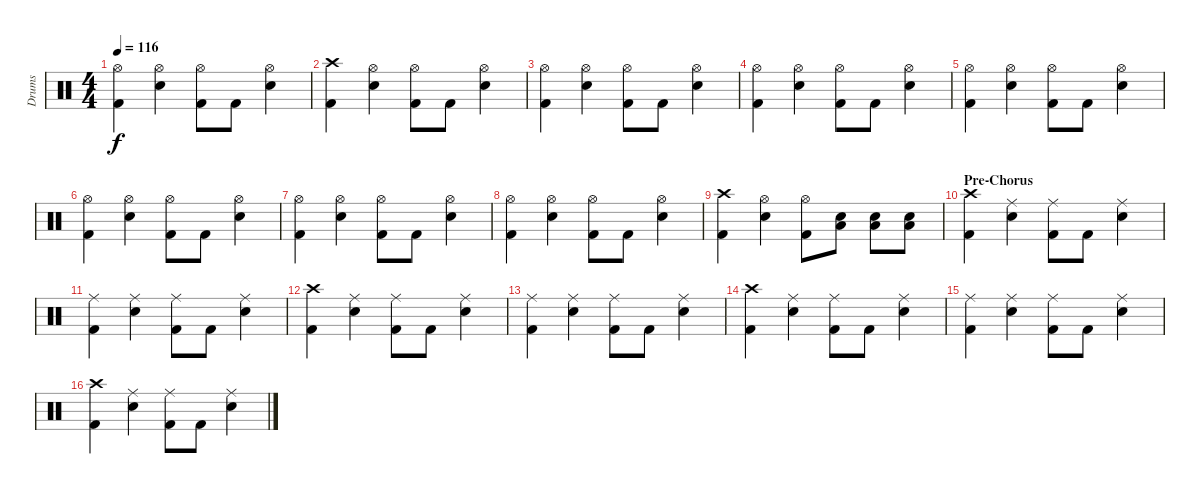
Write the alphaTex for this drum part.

\track ("Drums" "Drums") {instrument percussion}
\staff {score}
\articulation defaults
\ts (4 4)
\tempo 116
\clef neutral
\ks c
("Hi-Hat (open)" "Kick (hit) 2").4{dy f} ("Hi-Hat (open)" "Electric Snare (hit)").4 ("Hi-Hat (open)" "Kick (hit) 2").8 "Kick (hit) 2".8 ("Hi-Hat (open)" "Electric Snare (hit)").4 |
("Crash high (hit)" "Kick (hit) 2").4 ("Hi-Hat (open)" "Electric Snare (hit)").4 ("Hi-Hat (open)" "Kick (hit) 2").8 "Kick (hit) 2".8 ("Hi-Hat (open)" "Electric Snare (hit)").4 |
("Hi-Hat (open)" "Kick (hit) 2").4 ("Hi-Hat (open)" "Electric Snare (hit)").4 ("Hi-Hat (open)" "Kick (hit) 2").8 "Kick (hit) 2".8 ("Hi-Hat (open)" "Electric Snare (hit)").4 |
("Hi-Hat (open)" "Kick (hit) 2").4 ("Hi-Hat (open)" "Electric Snare (hit)").4 ("Hi-Hat (open)" "Kick (hit) 2").8 "Kick (hit) 2".8 ("Hi-Hat (open)" "Electric Snare (hit)").4 |
("Hi-Hat (open)" "Kick (hit) 2").4 ("Hi-Hat (open)" "Electric Snare (hit)").4 ("Hi-Hat (open)" "Kick (hit) 2").8 "Kick (hit) 2".8 ("Hi-Hat (open)" "Electric Snare (hit)").4 |
("Hi-Hat (open)" "Kick (hit) 2").4 ("Hi-Hat (open)" "Electric Snare (hit)").4 ("Hi-Hat (open)" "Kick (hit) 2").8 "Kick (hit) 2".8 ("Hi-Hat (open)" "Electric Snare (hit)").4 |
("Hi-Hat (open)" "Kick (hit) 2").4 ("Hi-Hat (open)" "Electric Snare (hit)").4 ("Hi-Hat (open)" "Kick (hit) 2").8 "Kick (hit) 2".8 ("Hi-Hat (open)" "Electric Snare (hit)").4 |
("Hi-Hat (open)" "Kick (hit) 2").4 ("Hi-Hat (open)" "Electric Snare (hit)").4 ("Hi-Hat (open)" "Kick (hit) 2").8 "Kick (hit) 2".8 ("Hi-Hat (open)" "Electric Snare (hit)").4 |
("Crash high (hit)" "Kick (hit) 2").4 ("Hi-Hat (open)" "Electric Snare (hit)").4 ("Hi-Hat (open)" "Kick (hit) 2").8 ("Low Floor Tom (hit)" "Electric Snare (hit)").8 ("Low Floor Tom (hit)" "Electric Snare (hit)").8 ("Low Floor Tom (hit)" "Electric Snare (hit)").8 |
\section ("" "Pre-Chorus")
("Crash high (hit)" "Kick (hit) 2").4 ("Ride (middle)" "Electric Snare (hit)").4 ("Ride (middle)" "Kick (hit) 2").8 "Kick (hit) 2".8 ("Ride (middle)" "Electric Snare (hit)").4 |
("Ride (middle)" "Kick (hit) 2").4 ("Ride (middle)" "Electric Snare (hit)").4 ("Ride (middle)" "Kick (hit) 2").8 "Kick (hit) 2".8 ("Ride (middle)" "Electric Snare (hit)").4 |
("Crash high (hit)" "Kick (hit) 2").4 ("Ride (middle)" "Electric Snare (hit)").4 ("Ride (middle)" "Kick (hit) 2").8 "Kick (hit) 2".8 ("Ride (middle)" "Electric Snare (hit)").4 |
("Ride (middle)" "Kick (hit) 2").4 ("Ride (middle)" "Electric Snare (hit)").4 ("Ride (middle)" "Kick (hit) 2").8 "Kick (hit) 2".8 ("Ride (middle)" "Electric Snare (hit)").4 |
("Crash high (hit)" "Kick (hit) 2").4 ("Ride (middle)" "Electric Snare (hit)").4 ("Ride (middle)" "Kick (hit) 2").8 "Kick (hit) 2".8 ("Ride (middle)" "Electric Snare (hit)").4 |
("Ride (middle)" "Kick (hit) 2").4 ("Ride (middle)" "Electric Snare (hit)").4 ("Ride (middle)" "Kick (hit) 2").8 "Kick (hit) 2".8 ("Ride (middle)" "Electric Snare (hit)").4 |
("Crash high (hit)" "Kick (hit) 2").4 ("Ride (middle)" "Electric Snare (hit)").4 ("Ride (middle)" "Kick (hit) 2").8 "Kick (hit) 2".8 ("Ride (middle)" "Electric Snare (hit)").4
